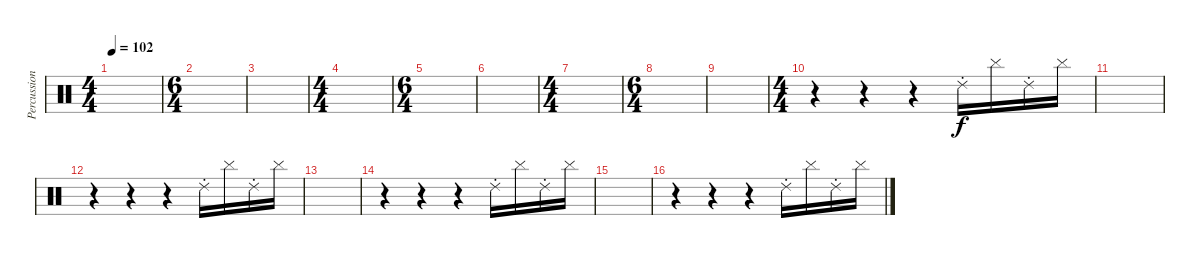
\track ("Percussions 1" "Percussion") {instrument percussion}
\staff {score}
\articulation defaults
\ts (4 4)
\tempo 102
\clef neutral
\ks c
|
\ts (6 4)
|
|
\ts (4 4)
|
\ts (6 4)
|
|
\ts (4 4)
|
\ts (6 4)
|
|
\ts (4 4)
r.4 r.4 r.4 "Ride (choke) 2".16 "Cymbal (hit)".16 "Ride (choke) 2".16 "Cymbal (hit)".16 |
|
r.4 r.4 r.4 "Ride (choke) 2".16 "Cymbal (hit)".16 "Ride (choke) 2".16 "Cymbal (hit)".16 |
|
r.4 r.4 r.4 "Ride (choke) 2".16 "Cymbal (hit)".16 "Ride (choke) 2".16 "Cymbal (hit)".16 |
|
r.4 r.4 r.4 "Ride (choke) 2".16 "Cymbal (hit)".16 "Ride (choke) 2".16 "Cymbal (hit)".16
